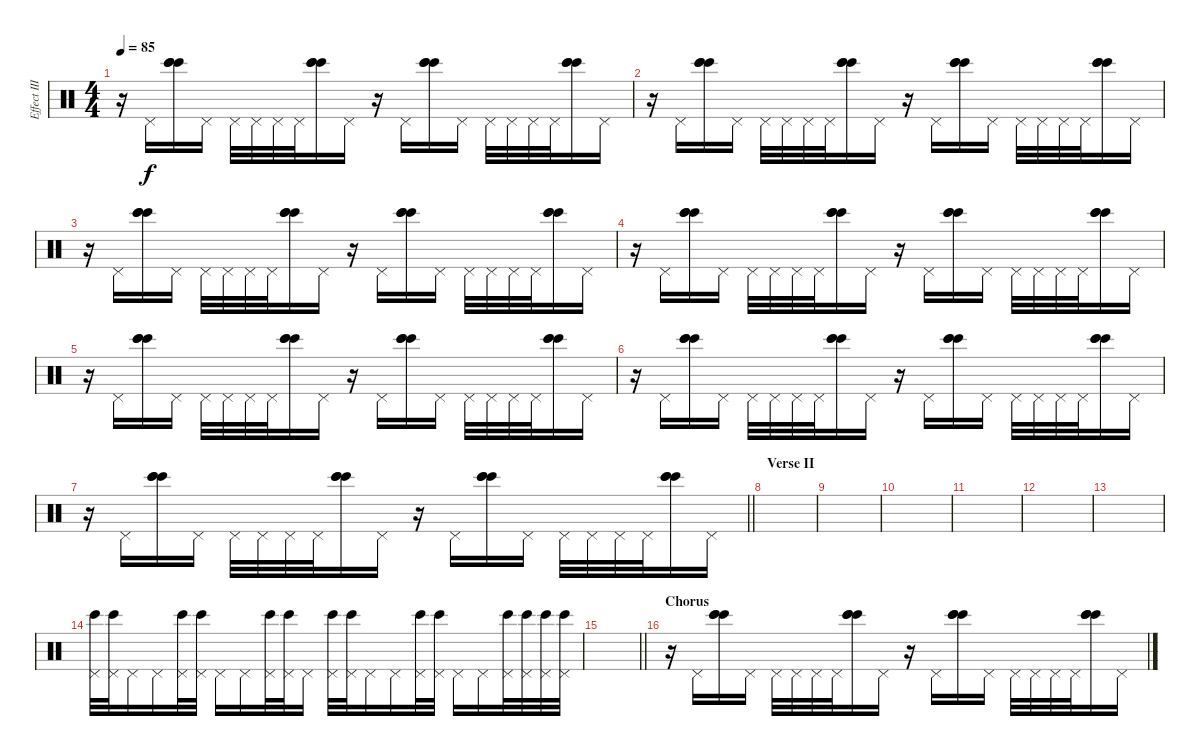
\track ("Effect III" "Effect III") {instrument percussion}
\staff {score}
\articulation defaults
\ts (4 4)
\tempo 85
\clef neutral
\ks c
r.16{dy f} "Pedal Hi-Hat (hit)".16 ("Bongo High (hit)" "Bongo High (hit)" "Bongo High (hit)").16 "Pedal Hi-Hat (hit)".16 "Pedal Hi-Hat (hit)".32 "Pedal Hi-Hat (hit)".32 "Pedal Hi-Hat (hit)".32 "Pedal Hi-Hat (hit)".32 ("Bongo High (hit)" "Bongo High (hit)" "Bongo High (hit)").16 "Pedal Hi-Hat (hit)".16 r.16 "Pedal Hi-Hat (hit)".16 ("Bongo High (hit)" "Bongo High (hit)" "Bongo High (hit)").16 "Pedal Hi-Hat (hit)".16 "Pedal Hi-Hat (hit)".32 "Pedal Hi-Hat (hit)".32 "Pedal Hi-Hat (hit)".32 "Pedal Hi-Hat (hit)".32 ("Bongo High (hit)" "Bongo High (hit)" "Bongo High (hit)").16 "Pedal Hi-Hat (hit)".16 |
r.16 "Pedal Hi-Hat (hit)".16 ("Bongo High (hit)" "Bongo High (hit)" "Bongo High (hit)").16 "Pedal Hi-Hat (hit)".16 "Pedal Hi-Hat (hit)".32 "Pedal Hi-Hat (hit)".32 "Pedal Hi-Hat (hit)".32 "Pedal Hi-Hat (hit)".32 ("Bongo High (hit)" "Bongo High (hit)" "Bongo High (hit)").16 "Pedal Hi-Hat (hit)".16 r.16 "Pedal Hi-Hat (hit)".16 ("Bongo High (hit)" "Bongo High (hit)" "Bongo High (hit)").16 "Pedal Hi-Hat (hit)".16 "Pedal Hi-Hat (hit)".32 "Pedal Hi-Hat (hit)".32 "Pedal Hi-Hat (hit)".32 "Pedal Hi-Hat (hit)".32 ("Bongo High (hit)" "Bongo High (hit)" "Bongo High (hit)").16 "Pedal Hi-Hat (hit)".16 |
r.16 "Pedal Hi-Hat (hit)".16 ("Bongo High (hit)" "Bongo High (hit)" "Bongo High (hit)").16 "Pedal Hi-Hat (hit)".16 "Pedal Hi-Hat (hit)".32 "Pedal Hi-Hat (hit)".32 "Pedal Hi-Hat (hit)".32 "Pedal Hi-Hat (hit)".32 ("Bongo High (hit)" "Bongo High (hit)" "Bongo High (hit)").16 "Pedal Hi-Hat (hit)".16 r.16 "Pedal Hi-Hat (hit)".16 ("Bongo High (hit)" "Bongo High (hit)" "Bongo High (hit)").16 "Pedal Hi-Hat (hit)".16 "Pedal Hi-Hat (hit)".32 "Pedal Hi-Hat (hit)".32 "Pedal Hi-Hat (hit)".32 "Pedal Hi-Hat (hit)".32 ("Bongo High (hit)" "Bongo High (hit)" "Bongo High (hit)").16 "Pedal Hi-Hat (hit)".16 |
r.16 "Pedal Hi-Hat (hit)".16 ("Bongo High (hit)" "Bongo High (hit)" "Bongo High (hit)").16 "Pedal Hi-Hat (hit)".16 "Pedal Hi-Hat (hit)".32 "Pedal Hi-Hat (hit)".32 "Pedal Hi-Hat (hit)".32 "Pedal Hi-Hat (hit)".32 ("Bongo High (hit)" "Bongo High (hit)" "Bongo High (hit)").16 "Pedal Hi-Hat (hit)".16 r.16 "Pedal Hi-Hat (hit)".16 ("Bongo High (hit)" "Bongo High (hit)" "Bongo High (hit)").16 "Pedal Hi-Hat (hit)".16 "Pedal Hi-Hat (hit)".32 "Pedal Hi-Hat (hit)".32 "Pedal Hi-Hat (hit)".32 "Pedal Hi-Hat (hit)".32 ("Bongo High (hit)" "Bongo High (hit)" "Bongo High (hit)").16 "Pedal Hi-Hat (hit)".16 |
r.16 "Pedal Hi-Hat (hit)".16 ("Bongo High (hit)" "Bongo High (hit)" "Bongo High (hit)").16 "Pedal Hi-Hat (hit)".16 "Pedal Hi-Hat (hit)".32 "Pedal Hi-Hat (hit)".32 "Pedal Hi-Hat (hit)".32 "Pedal Hi-Hat (hit)".32 ("Bongo High (hit)" "Bongo High (hit)" "Bongo High (hit)").16 "Pedal Hi-Hat (hit)".16 r.16 "Pedal Hi-Hat (hit)".16 ("Bongo High (hit)" "Bongo High (hit)" "Bongo High (hit)").16 "Pedal Hi-Hat (hit)".16 "Pedal Hi-Hat (hit)".32 "Pedal Hi-Hat (hit)".32 "Pedal Hi-Hat (hit)".32 "Pedal Hi-Hat (hit)".32 ("Bongo High (hit)" "Bongo High (hit)" "Bongo High (hit)").16 "Pedal Hi-Hat (hit)".16 |
r.16 "Pedal Hi-Hat (hit)".16 ("Bongo High (hit)" "Bongo High (hit)" "Bongo High (hit)").16 "Pedal Hi-Hat (hit)".16 "Pedal Hi-Hat (hit)".32 "Pedal Hi-Hat (hit)".32 "Pedal Hi-Hat (hit)".32 "Pedal Hi-Hat (hit)".32 ("Bongo High (hit)" "Bongo High (hit)" "Bongo High (hit)").16 "Pedal Hi-Hat (hit)".16 r.16 "Pedal Hi-Hat (hit)".16 ("Bongo High (hit)" "Bongo High (hit)" "Bongo High (hit)").16 "Pedal Hi-Hat (hit)".16 "Pedal Hi-Hat (hit)".32 "Pedal Hi-Hat (hit)".32 "Pedal Hi-Hat (hit)".32 "Pedal Hi-Hat (hit)".32 ("Bongo High (hit)" "Bongo High (hit)" "Bongo High (hit)").16 "Pedal Hi-Hat (hit)".16 |
\barLineRight lightlight
r.16 "Pedal Hi-Hat (hit)".16 ("Bongo High (hit)" "Bongo High (hit)" "Bongo High (hit)").16 "Pedal Hi-Hat (hit)".16 "Pedal Hi-Hat (hit)".32 "Pedal Hi-Hat (hit)".32 "Pedal Hi-Hat (hit)".32 "Pedal Hi-Hat (hit)".32 ("Bongo High (hit)" "Bongo High (hit)" "Bongo High (hit)").16 "Pedal Hi-Hat (hit)".16 r.16 "Pedal Hi-Hat (hit)".16 ("Bongo High (hit)" "Bongo High (hit)" "Bongo High (hit)").16 "Pedal Hi-Hat (hit)".16 "Pedal Hi-Hat (hit)".32 "Pedal Hi-Hat (hit)".32 "Pedal Hi-Hat (hit)".32 "Pedal Hi-Hat (hit)".32 ("Bongo High (hit)" "Bongo High (hit)" "Bongo High (hit)").16 "Pedal Hi-Hat (hit)".16 |
\section ("" "Verse II")
|
|
|
|
|
|
("Pedal Hi-Hat (hit)" "Bongo High (hit)").32{volume 9} ("Pedal Hi-Hat (hit)" "Bongo High (hit)").32 "Pedal Hi-Hat (hit)".16 "Pedal Hi-Hat (hit)".16 ("Pedal Hi-Hat (hit)" "Bongo High (hit)").32 ("Pedal Hi-Hat (hit)" "Bongo High (hit)").32 "Pedal Hi-Hat (hit)".16 "Pedal Hi-Hat (hit)".16 ("Pedal Hi-Hat (hit)" "Bongo High (hit)").32 ("Pedal Hi-Hat (hit)" "Bongo High (hit)").32 "Pedal Hi-Hat (hit)".16 ("Pedal Hi-Hat (hit)" "Bongo High (hit)").32 ("Pedal Hi-Hat (hit)" "Bongo High (hit)").32 "Pedal Hi-Hat (hit)".16 "Pedal Hi-Hat (hit)".16 ("Pedal Hi-Hat (hit)" "Bongo High (hit)").32 ("Pedal Hi-Hat (hit)" "Bongo High (hit)").32 "Pedal Hi-Hat (hit)".16 "Pedal Hi-Hat (hit)".16 ("Pedal Hi-Hat (hit)" "Bongo High (hit)").32 ("Pedal Hi-Hat (hit)" "Bongo High (hit)").32 ("Pedal Hi-Hat (hit)" "Bongo High (hit)").32 ("Pedal Hi-Hat (hit)" "Bongo High (hit)").32 |
\barLineRight lightlight
|
\section ("" "Chorus")
r.16 "Pedal Hi-Hat (hit)".16 ("Bongo High (hit)" "Bongo High (hit)" "Bongo High (hit)").16 "Pedal Hi-Hat (hit)".16 "Pedal Hi-Hat (hit)".32 "Pedal Hi-Hat (hit)".32 "Pedal Hi-Hat (hit)".32 "Pedal Hi-Hat (hit)".32 ("Bongo High (hit)" "Bongo High (hit)" "Bongo High (hit)").16 "Pedal Hi-Hat (hit)".16 r.16 "Pedal Hi-Hat (hit)".16 ("Bongo High (hit)" "Bongo High (hit)" "Bongo High (hit)").16 "Pedal Hi-Hat (hit)".16 "Pedal Hi-Hat (hit)".32 "Pedal Hi-Hat (hit)".32 "Pedal Hi-Hat (hit)".32 "Pedal Hi-Hat (hit)".32 ("Bongo High (hit)" "Bongo High (hit)" "Bongo High (hit)").16 "Pedal Hi-Hat (hit)".16
